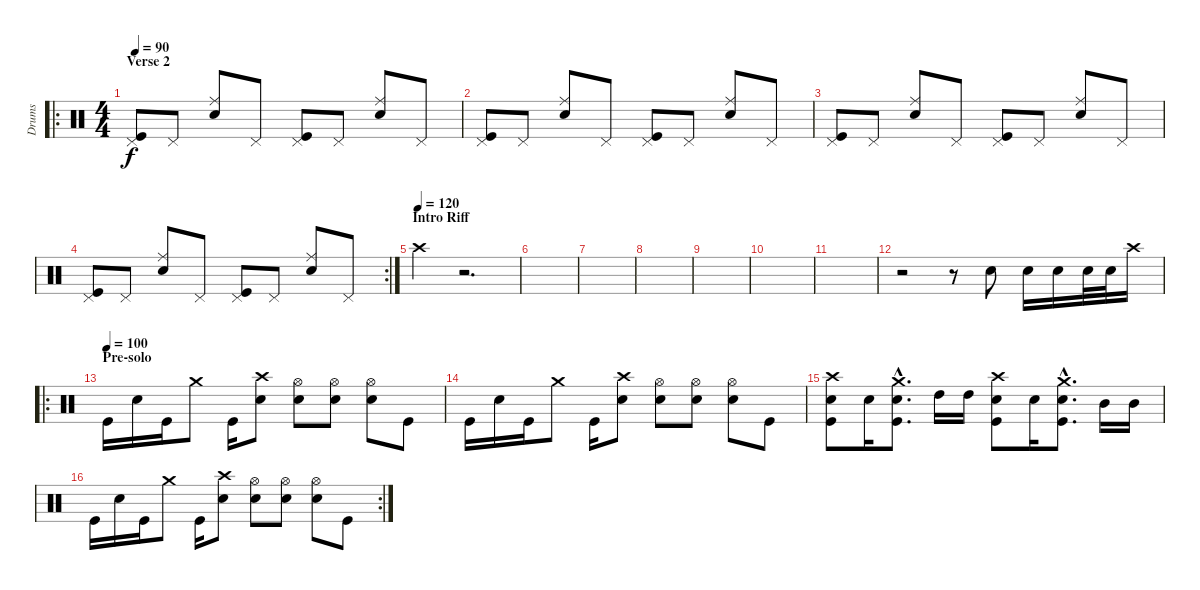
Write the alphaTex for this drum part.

\track ("Drums" "Drums") {instrument percussion}
\staff {score}
\articulation defaults
\ro
\ts (4 4)
\section ("" "Verse 2")
\tempo 90
\clef neutral
\ks c
("Pedal Hi-Hat (hit)" "Kick (hit)").8{dy f} "Pedal Hi-Hat (hit)".8 ("Ride (middle)" "Electric Snare (hit)").8 "Pedal Hi-Hat (hit)".8 ("Pedal Hi-Hat (hit)" "Kick (hit)").8 "Pedal Hi-Hat (hit)".8 ("Ride (middle)" "Electric Snare (hit)").8 "Pedal Hi-Hat (hit)".8 |
("Pedal Hi-Hat (hit)" "Kick (hit)").8 "Pedal Hi-Hat (hit)".8 ("Ride (middle)" "Electric Snare (hit)").8 "Pedal Hi-Hat (hit)".8 ("Pedal Hi-Hat (hit)" "Kick (hit)").8 "Pedal Hi-Hat (hit)".8 ("Ride (middle)" "Electric Snare (hit)").8 "Pedal Hi-Hat (hit)".8 |
("Pedal Hi-Hat (hit)" "Kick (hit)").8 "Pedal Hi-Hat (hit)".8 ("Ride (middle)" "Electric Snare (hit)").8 "Pedal Hi-Hat (hit)".8 ("Pedal Hi-Hat (hit)" "Kick (hit)").8 "Pedal Hi-Hat (hit)".8 ("Ride (middle)" "Electric Snare (hit)").8 "Pedal Hi-Hat (hit)".8 |
\rc 2
("Pedal Hi-Hat (hit)" "Kick (hit)").8 "Pedal Hi-Hat (hit)".8 ("Ride (middle)" "Electric Snare (hit)").8 "Pedal Hi-Hat (hit)".8 ("Pedal Hi-Hat (hit)" "Kick (hit)").8 "Pedal Hi-Hat (hit)".8 ("Ride (middle)" "Electric Snare (hit)").8 "Pedal Hi-Hat (hit)".8 |
\section ("" "Intro Riff")
\tempo (120)
"Crash high (hit)".4 r.2{d} |
|
|
|
|
|
|
r.2 r.8 "Electric Snare (hit)".8 "Electric Snare (hit)".16 "Electric Snare (hit)".16 "Electric Snare (hit)".32 "Electric Snare (hit)".32 "Crash high (hit)".16 |
\ro
\section ("" "Pre-solo")
\tempo (100)
"Kick (hit)".16 "Electric Snare (hit)".16 "Kick (hit)".16 "Crash medium (hit)".8 "Kick (hit)".16 ("Crash high (hit)" "Electric Snare (hit)").8 ("Hi-Hat (open)" "Electric Snare (hit)").8 ("Hi-Hat (open)" "Electric Snare (hit)").8 ("Hi-Hat (open)" "Electric Snare (hit)").8 "Kick (hit)".8 |
"Kick (hit)".16 "Electric Snare (hit)".16 "Kick (hit)".16 "Crash medium (hit)".8 "Kick (hit)".16 ("Crash high (hit)" "Electric Snare (hit)").8 ("Hi-Hat (open)" "Electric Snare (hit)").8 ("Hi-Hat (open)" "Electric Snare (hit)").8 ("Hi-Hat (open)" "Electric Snare (hit)").8 "Kick (hit)".8 |
("Crash high (hit)" "Electric Snare (hit)" "Kick (hit)").8 "Electric Snare (hit)".16 ("Crash medium (hit)"{hac} "Electric Snare (hit)"{hac} "Kick (hit)"{hac}).8{d} "High Tom (hit)".16 "High Tom (hit)".16 ("Crash high (hit)" "Electric Snare (hit)" "Kick (hit)").8 "Electric Snare (hit)".16 ("Crash medium (hit)"{hac} "Electric Snare (hit)"{hac} "Kick (hit)"{hac}).8{d} "Mid Tom (hit)".16 "Mid Tom (hit)".16 |
\rc 2 "Kick (hit)".16 "Electric Snare (hit)".16 "Kick (hit)".16 "Crash medium (hit)".8 "Kick (hit)".16
("Crash high (hit)" "Electric Snare (hit)").8 ("Hi-Hat (open)" "Electric Snare (hit)").8 ("Hi-Hat (open)" "Electric Snare (hit)").8 ("Hi-Hat (open)" "Electric Snare (hit)").8 "Kick (hit)".8
